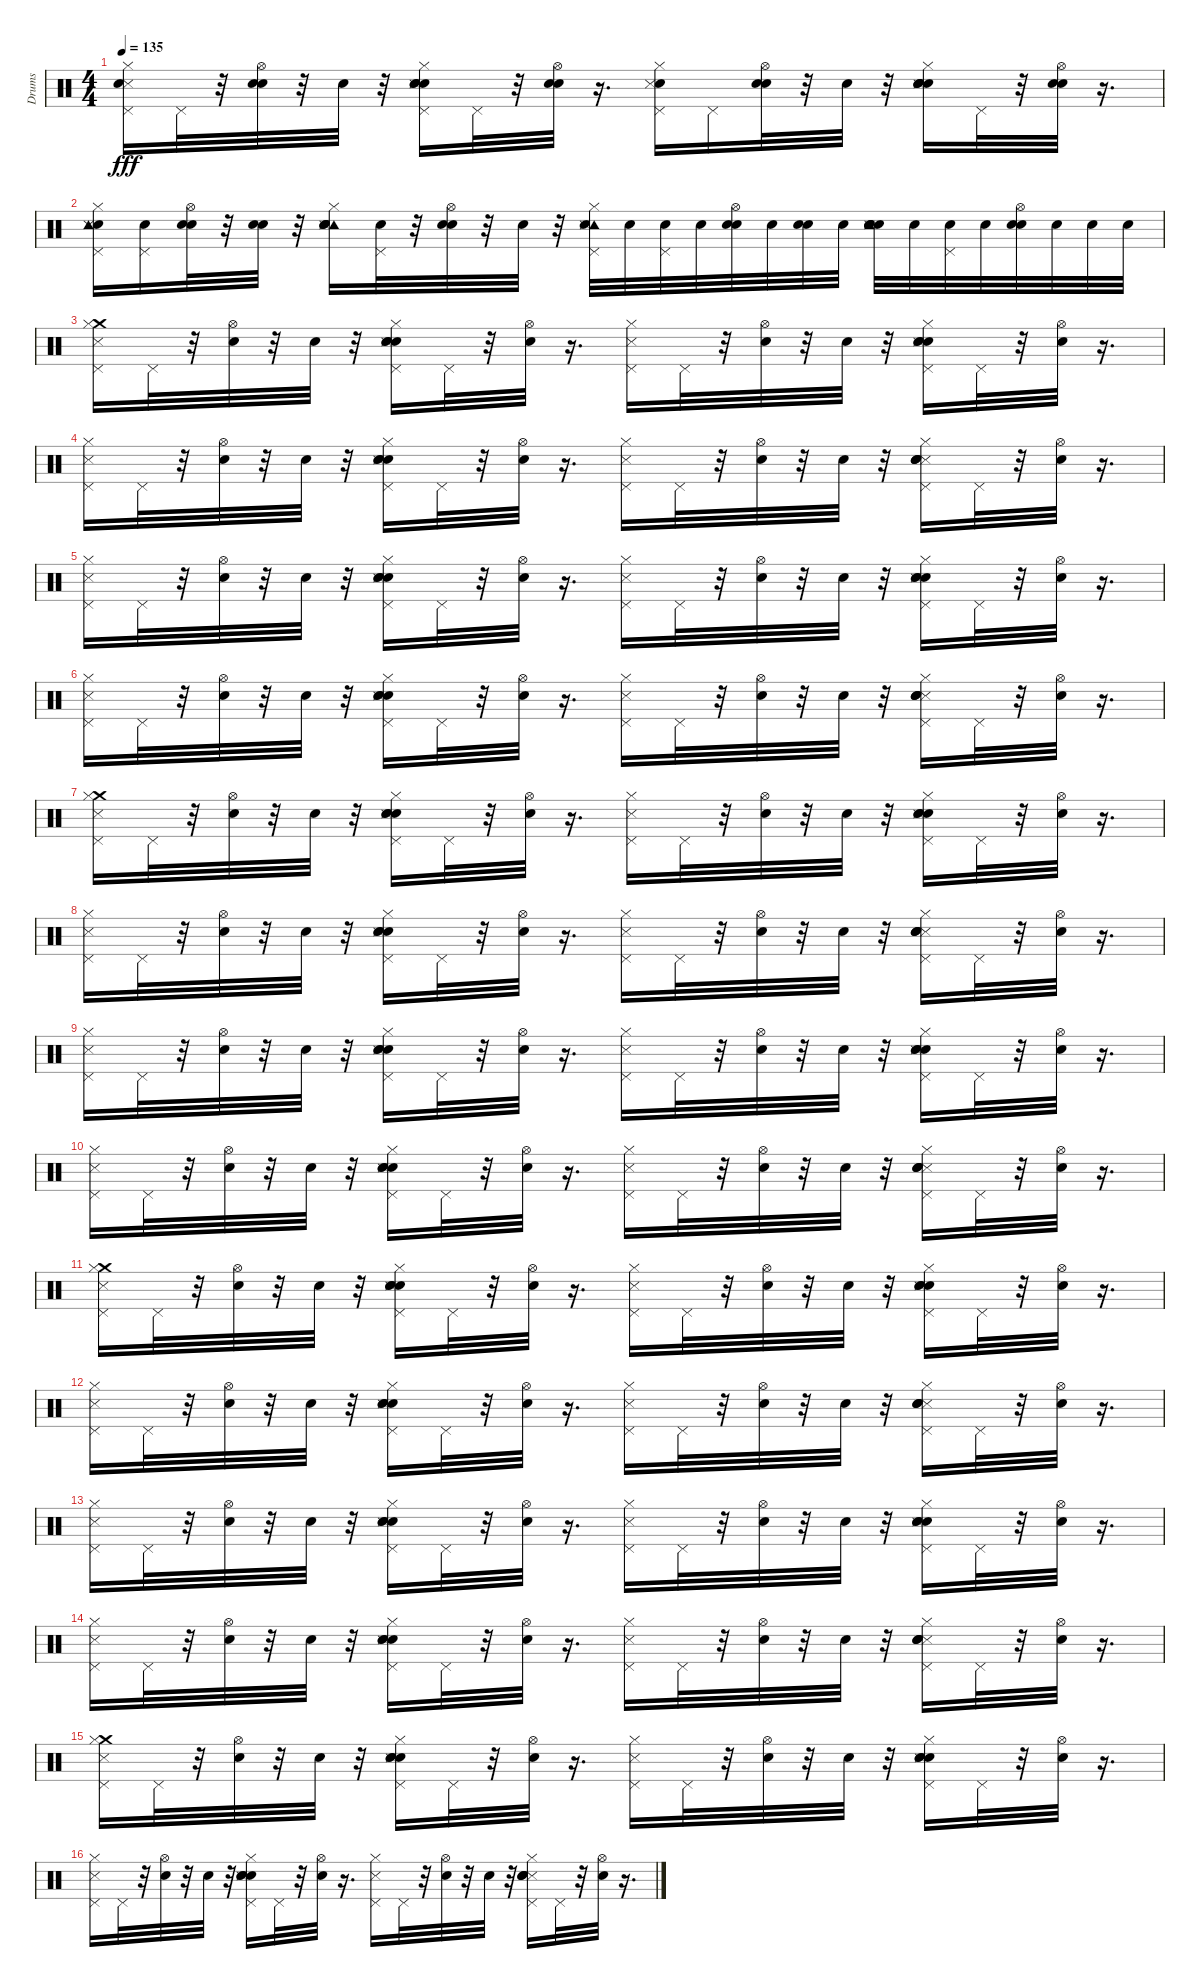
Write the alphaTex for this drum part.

\track ("Drums" "Drums") {instrument percussion}
\staff {score}
\articulation defaults
\ts (4 4)
\tempo 135
\clef neutral
\ks c
("Metronome (hit)" "Pedal Hi-Hat (hit)" "Hi-Hat (closed)" "Snare (hit) 2").16{dy fff} "Pedal Hi-Hat (hit)".32 r.32 ("Hi-Hat (open)" "Snare (hit)" "Snare (hit) 2").32 r.32 "Snare (hit)".32 r.32 ("Electric Snare (hit)" "Snare (hit) 2" "Metronome (hit)" "Hand Clap (hit)" "Hi-Hat (closed)" "Pedal Hi-Hat (hit)").16 "Pedal Hi-Hat (hit)".32 r.32 ("Snare (hit) 2" "Snare (hit)" "Hi-Hat (open)").32 r.16{d} ("Hi-Hat (closed)" "Pedal Hi-Hat (hit)" "Snare (hit) 2" "Metronome (hit)").16 "Pedal Hi-Hat (hit)".16 ("Hi-Hat (open)" "Snare (hit) 2" "Snare (hit)").32 r.32 "Snare (hit)".32 r.32 ("Snare (hit)" "Electric Snare (hit)" "Hand Clap (hit)" "Hi-Hat (closed)" "Snare (hit) 2" "Metronome (hit)").16 "Pedal Hi-Hat (hit)".32 r.32 ("Snare (hit)" "Hi-Hat (open)" "Snare (hit) 2").32 r.16{d} |
("Snare (hit) 2" "Hi-Hat (closed)" "Tambourine (hit)" "Pedal Hi-Hat (hit)" "Metronome (hit)").16 ("Pedal Hi-Hat (hit)" "Snare (hit) 2").16 ("Hi-Hat (open)" "Snare (hit)" "Snare (hit) 2").32 r.32 ("Snare (hit)" "Snare (hit) 2").32 r.32 ("Tambourine (hit)" "Snare (hit)" "Snare (hit) 2" "Electric Snare (hit)" "Metronome (hit)" "Hi-Hat (closed)").16 ("Snare (hit) 2" "Pedal Hi-Hat (hit)").32 r.32 ("Snare (hit)" "Snare (hit) 2" "Hi-Hat (open)").32 r.32 "Snare (hit) 2".32 r.32 ("Tambourine (hit)" "Metronome (hit)" "Snare (hit) 2" "Hi-Hat (closed)" "Pedal Hi-Hat (hit)").32 "Snare (hit) 2".32 ("Pedal Hi-Hat (hit)" "Snare (hit) 2").32 "Snare (hit) 2".32 ("Hi-Hat (open)" "Snare (hit)" "Snare (hit) 2").32 "Snare (hit) 2".32 ("Snare (hit)" "Snare (hit) 2").32 "Snare (hit) 2".32 ("Hand Clap (hit)" "Tambourine (hit)" "Metronome (hit)" "Snare (hit) 2" "Electric Snare (hit)" "Snare (hit)").32 "Snare (hit) 2".32 ("Snare (hit) 2" "Pedal Hi-Hat (hit)").32 "Snare (hit) 2".32 ("Snare (hit)" "Snare (hit) 2" "Hi-Hat (open)").32 "Snare (hit) 2".32 "Snare (hit) 2".32 "Snare (hit) 2".32 |
("Crash medium (hit)" "Pedal Hi-Hat (hit)" "Hi-Hat (closed)" "Metronome (hit)").16 "Pedal Hi-Hat (hit)".32 r.32 ("Hi-Hat (open)" "Snare (hit)").32 r.32 "Snare (hit)".32 r.32 ("Electric Snare (hit)" "Hand Clap (hit)" "Hi-Hat (closed)" "Snare (hit)" "Metronome (hit)" "Pedal Hi-Hat (hit)").16 "Pedal Hi-Hat (hit)".32 r.32 ("Snare (hit)" "Hi-Hat (open)").32 r.16{d} ("Pedal Hi-Hat (hit)" "Hi-Hat (closed)" "Metronome (hit)").16 "Pedal Hi-Hat (hit)".32 r.32 ("Snare (hit)" "Hi-Hat (open)").32 r.32 "Snare (hit)".32 r.32 ("Hi-Hat (closed)" "Electric Snare (hit)" "Snare (hit)" "Pedal Hi-Hat (hit)" "Metronome (hit)" "Hand Clap (hit)").16 "Pedal Hi-Hat (hit)".32 r.32 ("Snare (hit)" "Hi-Hat (open)").32 r.16{d} |
("Pedal Hi-Hat (hit)" "Hi-Hat (closed)" "Metronome (hit)").16 "Pedal Hi-Hat (hit)".32 r.32 ("Hi-Hat (open)" "Snare (hit)").32 r.32 "Snare (hit)".32 r.32 ("Hand Clap (hit)" "Snare (hit)" "Hi-Hat (closed)" "Pedal Hi-Hat (hit)" "Metronome (hit)" "Electric Snare (hit)").16 "Pedal Hi-Hat (hit)".32 r.32 ("Hi-Hat (open)" "Snare (hit)").32 r.16{d} ("Metronome (hit)" "Pedal Hi-Hat (hit)" "Hi-Hat (closed)").16 "Pedal Hi-Hat (hit)".32 r.32 ("Hi-Hat (open)" "Snare (hit)").32 r.32 "Snare (hit)".32 r.32 ("Metronome (hit)" "Hi-Hat (closed)" "Hand Clap (hit)" "Pedal Hi-Hat (hit)" "Snare (hit)" "Electric Snare (hit)").16 "Pedal Hi-Hat (hit)".32 r.32 ("Hi-Hat (open)" "Snare (hit)").32 r.16{d} |
("Pedal Hi-Hat (hit)" "Hi-Hat (closed)" "Metronome (hit)").16 "Pedal Hi-Hat (hit)".32 r.32 ("Snare (hit)" "Hi-Hat (open)").32 r.32 "Snare (hit)".32 r.32 ("Electric Snare (hit)" "Snare (hit)" "Metronome (hit)" "Hand Clap (hit)" "Pedal Hi-Hat (hit)" "Hi-Hat (closed)").16 "Pedal Hi-Hat (hit)".32 r.32 ("Snare (hit)" "Hi-Hat (open)").32 r.16{d} ("Pedal Hi-Hat (hit)" "Hi-Hat (closed)" "Metronome (hit)").16 "Pedal Hi-Hat (hit)".32 r.32 ("Snare (hit)" "Hi-Hat (open)").32 r.32 "Snare (hit)".32 r.32 ("Hi-Hat (closed)" "Snare (hit)" "Electric Snare (hit)" "Pedal Hi-Hat (hit)" "Metronome (hit)" "Hand Clap (hit)").16 "Pedal Hi-Hat (hit)".32 r.32 ("Hi-Hat (open)" "Snare (hit)").32 r.16{d} |
("Metronome (hit)" "Pedal Hi-Hat (hit)" "Hi-Hat (closed)").16 "Pedal Hi-Hat (hit)".32 r.32 ("Hi-Hat (open)" "Snare (hit)").32 r.32 "Snare (hit)".32 r.32 ("Electric Snare (hit)" "Hand Clap (hit)" "Hi-Hat (closed)" "Snare (hit)" "Metronome (hit)" "Pedal Hi-Hat (hit)").16 "Pedal Hi-Hat (hit)".32 r.32 ("Hi-Hat (open)" "Snare (hit)").32 r.16{d} ("Metronome (hit)" "Pedal Hi-Hat (hit)" "Hi-Hat (closed)").16 "Pedal Hi-Hat (hit)".32 r.32 ("Hi-Hat (open)" "Snare (hit)").32 r.32 "Snare (hit)".32 r.32 ("Metronome (hit)" "Hi-Hat (closed)" "Hand Clap (hit)" "Pedal Hi-Hat (hit)" "Snare (hit)" "Electric Snare (hit)").16 "Pedal Hi-Hat (hit)".32 r.32 ("Hi-Hat (open)" "Snare (hit)").32 r.16{d} |
("Crash medium (hit)" "Pedal Hi-Hat (hit)" "Hi-Hat (closed)" "Metronome (hit)").16 "Pedal Hi-Hat (hit)".32 r.32 ("Hi-Hat (open)" "Snare (hit)").32 r.32 "Snare (hit)".32 r.32 ("Electric Snare (hit)" "Hand Clap (hit)" "Hi-Hat (closed)" "Snare (hit)" "Metronome (hit)" "Pedal Hi-Hat (hit)").16 "Pedal Hi-Hat (hit)".32 r.32 ("Snare (hit)" "Hi-Hat (open)").32 r.16{d} ("Pedal Hi-Hat (hit)" "Hi-Hat (closed)" "Metronome (hit)").16 "Pedal Hi-Hat (hit)".32 r.32 ("Snare (hit)" "Hi-Hat (open)").32 r.32 "Snare (hit)".32 r.32 ("Hi-Hat (closed)" "Electric Snare (hit)" "Snare (hit)" "Pedal Hi-Hat (hit)" "Metronome (hit)" "Hand Clap (hit)").16 "Pedal Hi-Hat (hit)".32 r.32 ("Snare (hit)" "Hi-Hat (open)").32 r.16{d} |
("Pedal Hi-Hat (hit)" "Hi-Hat (closed)" "Metronome (hit)").16 "Pedal Hi-Hat (hit)".32 r.32 ("Hi-Hat (open)" "Snare (hit)").32 r.32 "Snare (hit)".32 r.32 ("Hand Clap (hit)" "Snare (hit)" "Hi-Hat (closed)" "Pedal Hi-Hat (hit)" "Metronome (hit)" "Electric Snare (hit)").16 "Pedal Hi-Hat (hit)".32 r.32 ("Hi-Hat (open)" "Snare (hit)").32 r.16{d} ("Metronome (hit)" "Pedal Hi-Hat (hit)" "Hi-Hat (closed)").16 "Pedal Hi-Hat (hit)".32 r.32 ("Hi-Hat (open)" "Snare (hit)").32 r.32 "Snare (hit)".32 r.32 ("Metronome (hit)" "Hi-Hat (closed)" "Hand Clap (hit)" "Pedal Hi-Hat (hit)" "Snare (hit)" "Electric Snare (hit)").16 "Pedal Hi-Hat (hit)".32 r.32 ("Hi-Hat (open)" "Snare (hit)").32 r.16{d} |
("Pedal Hi-Hat (hit)" "Hi-Hat (closed)" "Metronome (hit)").16 "Pedal Hi-Hat (hit)".32 r.32 ("Snare (hit)" "Hi-Hat (open)").32 r.32 "Snare (hit)".32 r.32 ("Electric Snare (hit)" "Snare (hit)" "Metronome (hit)" "Hand Clap (hit)" "Pedal Hi-Hat (hit)" "Hi-Hat (closed)").16 "Pedal Hi-Hat (hit)".32 r.32 ("Snare (hit)" "Hi-Hat (open)").32 r.16{d} ("Pedal Hi-Hat (hit)" "Hi-Hat (closed)" "Metronome (hit)").16 "Pedal Hi-Hat (hit)".32 r.32 ("Snare (hit)" "Hi-Hat (open)").32 r.32 "Snare (hit)".32 r.32 ("Hi-Hat (closed)" "Snare (hit)" "Electric Snare (hit)" "Pedal Hi-Hat (hit)" "Metronome (hit)" "Hand Clap (hit)").16 "Pedal Hi-Hat (hit)".32 r.32 ("Hi-Hat (open)" "Snare (hit)").32 r.16{d} |
("Metronome (hit)" "Pedal Hi-Hat (hit)" "Hi-Hat (closed)").16 "Pedal Hi-Hat (hit)".32 r.32 ("Hi-Hat (open)" "Snare (hit)").32 r.32 "Snare (hit)".32 r.32 ("Electric Snare (hit)" "Hand Clap (hit)" "Hi-Hat (closed)" "Snare (hit)" "Metronome (hit)" "Pedal Hi-Hat (hit)").16 "Pedal Hi-Hat (hit)".32 r.32 ("Hi-Hat (open)" "Snare (hit)").32 r.16{d} ("Metronome (hit)" "Pedal Hi-Hat (hit)" "Hi-Hat (closed)").16 "Pedal Hi-Hat (hit)".32 r.32 ("Hi-Hat (open)" "Snare (hit)").32 r.32 "Snare (hit)".32 r.32 ("Metronome (hit)" "Hi-Hat (closed)" "Hand Clap (hit)" "Pedal Hi-Hat (hit)" "Snare (hit)" "Electric Snare (hit)").16 "Pedal Hi-Hat (hit)".32 r.32 ("Hi-Hat (open)" "Snare (hit)").32 r.16{d} |
("Crash medium (hit)" "Pedal Hi-Hat (hit)" "Hi-Hat (closed)" "Metronome (hit)").16 "Pedal Hi-Hat (hit)".32 r.32 ("Hi-Hat (open)" "Snare (hit)").32 r.32 "Snare (hit)".32 r.32 ("Electric Snare (hit)" "Hand Clap (hit)" "Hi-Hat (closed)" "Snare (hit)" "Metronome (hit)" "Pedal Hi-Hat (hit)").16 "Pedal Hi-Hat (hit)".32 r.32 ("Snare (hit)" "Hi-Hat (open)").32 r.16{d} ("Pedal Hi-Hat (hit)" "Hi-Hat (closed)" "Metronome (hit)").16 "Pedal Hi-Hat (hit)".32 r.32 ("Snare (hit)" "Hi-Hat (open)").32 r.32 "Snare (hit)".32 r.32 ("Hi-Hat (closed)" "Electric Snare (hit)" "Snare (hit)" "Pedal Hi-Hat (hit)" "Metronome (hit)" "Hand Clap (hit)").16 "Pedal Hi-Hat (hit)".32 r.32 ("Snare (hit)" "Hi-Hat (open)").32 r.16{d} |
("Pedal Hi-Hat (hit)" "Hi-Hat (closed)" "Metronome (hit)").16 "Pedal Hi-Hat (hit)".32 r.32 ("Hi-Hat (open)" "Snare (hit)").32 r.32 "Snare (hit)".32 r.32 ("Hand Clap (hit)" "Snare (hit)" "Hi-Hat (closed)" "Pedal Hi-Hat (hit)" "Metronome (hit)" "Electric Snare (hit)").16 "Pedal Hi-Hat (hit)".32 r.32 ("Hi-Hat (open)" "Snare (hit)").32 r.16{d} ("Metronome (hit)" "Pedal Hi-Hat (hit)" "Hi-Hat (closed)").16 "Pedal Hi-Hat (hit)".32 r.32 ("Hi-Hat (open)" "Snare (hit)").32 r.32 "Snare (hit)".32 r.32 ("Metronome (hit)" "Hi-Hat (closed)" "Hand Clap (hit)" "Pedal Hi-Hat (hit)" "Snare (hit)" "Electric Snare (hit)").16 "Pedal Hi-Hat (hit)".32 r.32 ("Hi-Hat (open)" "Snare (hit)").32 r.16{d} |
("Pedal Hi-Hat (hit)" "Hi-Hat (closed)" "Metronome (hit)").16 "Pedal Hi-Hat (hit)".32 r.32 ("Snare (hit)" "Hi-Hat (open)").32 r.32 "Snare (hit)".32 r.32 ("Electric Snare (hit)" "Snare (hit)" "Metronome (hit)" "Hand Clap (hit)" "Pedal Hi-Hat (hit)" "Hi-Hat (closed)").16 "Pedal Hi-Hat (hit)".32 r.32 ("Snare (hit)" "Hi-Hat (open)").32 r.16{d} ("Pedal Hi-Hat (hit)" "Hi-Hat (closed)" "Metronome (hit)").16 "Pedal Hi-Hat (hit)".32 r.32 ("Snare (hit)" "Hi-Hat (open)").32 r.32 "Snare (hit)".32 r.32 ("Hi-Hat (closed)" "Snare (hit)" "Electric Snare (hit)" "Pedal Hi-Hat (hit)" "Metronome (hit)" "Hand Clap (hit)").16 "Pedal Hi-Hat (hit)".32 r.32 ("Hi-Hat (open)" "Snare (hit)").32 r.16{d} |
("Metronome (hit)" "Pedal Hi-Hat (hit)" "Hi-Hat (closed)").16 "Pedal Hi-Hat (hit)".32 r.32 ("Hi-Hat (open)" "Snare (hit)").32 r.32 "Snare (hit)".32 r.32 ("Electric Snare (hit)" "Hand Clap (hit)" "Hi-Hat (closed)" "Snare (hit)" "Metronome (hit)" "Pedal Hi-Hat (hit)").16 "Pedal Hi-Hat (hit)".32 r.32 ("Hi-Hat (open)" "Snare (hit)").32 r.16{d} ("Metronome (hit)" "Pedal Hi-Hat (hit)" "Hi-Hat (closed)").16 "Pedal Hi-Hat (hit)".32 r.32 ("Hi-Hat (open)" "Snare (hit)").32 r.32 "Snare (hit)".32 r.32 ("Metronome (hit)" "Hi-Hat (closed)" "Hand Clap (hit)" "Pedal Hi-Hat (hit)" "Snare (hit)" "Electric Snare (hit)").16 "Pedal Hi-Hat (hit)".32 r.32 ("Hi-Hat (open)" "Snare (hit)").32 r.16{d} |
("Crash medium (hit)" "Pedal Hi-Hat (hit)" "Hi-Hat (closed)" "Metronome (hit)").16 "Pedal Hi-Hat (hit)".32 r.32 ("Hi-Hat (open)" "Snare (hit)").32 r.32 "Snare (hit)".32 r.32 ("Snare (hit)" "Hand Clap (hit)" "Hi-Hat (closed)" "Electric Snare (hit)" "Metronome (hit)" "Pedal Hi-Hat (hit)").16 "Pedal Hi-Hat (hit)".32 r.32 ("Snare (hit)" "Hi-Hat (open)").32 r.16{d} ("Pedal Hi-Hat (hit)" "Metronome (hit)" "Hi-Hat (closed)").16 "Pedal Hi-Hat (hit)".32 r.32 ("Snare (hit)" "Hi-Hat (open)").32 r.32 "Snare (hit)".32 r.32 ("Pedal Hi-Hat (hit)" "Hi-Hat (closed)" "Electric Snare (hit)" "Snare (hit)" "Hand Clap (hit)" "Metronome (hit)").16 "Pedal Hi-Hat (hit)".32 r.32 ("Hi-Hat (open)" "Snare (hit)").32 r.16{d} |
("Metronome (hit)" "Pedal Hi-Hat (hit)" "Hi-Hat (closed)").16 "Pedal Hi-Hat (hit)".32 r.32 ("Hi-Hat (open)" "Snare (hit)").32 r.32 "Snare (hit)".32 r.32 ("Hand Clap (hit)" "Hi-Hat (closed)" "Metronome (hit)" "Pedal Hi-Hat (hit)" "Snare (hit)" "Electric Snare (hit)").16 "Pedal Hi-Hat (hit)".32 r.32 ("Snare (hit)" "Hi-Hat (open)").32 r.16{d} ("Hi-Hat (closed)" "Pedal Hi-Hat (hit)" "Metronome (hit)").16 "Pedal Hi-Hat (hit)".32 r.32 ("Snare (hit)" "Hi-Hat (open)").32 r.32 "Snare (hit)".32 r.32 ("Metronome (hit)" "Pedal Hi-Hat (hit)" "Hand Clap (hit)" "Hi-Hat (closed)" "Snare (hit)" "Electric Snare (hit)").16 "Pedal Hi-Hat (hit)".32 r.32 ("Snare (hit)" "Hi-Hat (open)").32 r.16{d}
